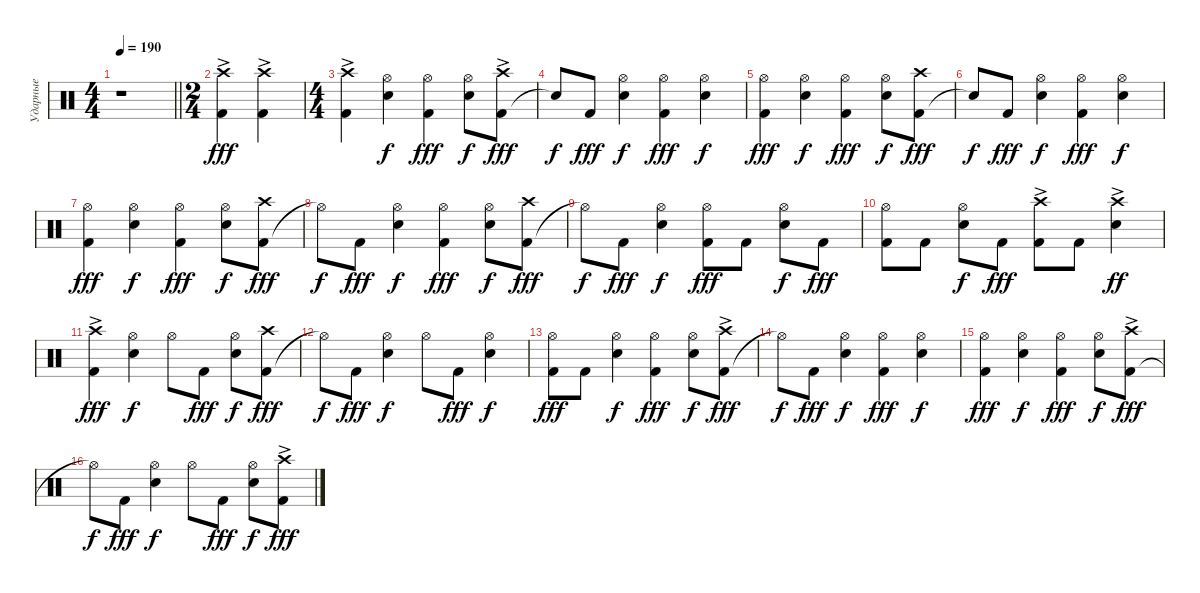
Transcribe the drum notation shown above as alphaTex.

\track ("Ударные" "Ударные") {instrument percussion}
\staff {score}
\articulation defaults
\ts (4 4)
\tempo 190
\clef neutral
\barLineRight lightlight
\ks c
r.1{dy fff} |
\ts (2 4)
("Kick (hit) 2" "Crash high (hit)"{ac}).4 ("Kick (hit) 2" "Crash high (hit)"{ac}).4 |
\ts (4 4)
("Kick (hit) 2" "Crash high (hit)"{ac}).4 ("Snare (hit) 2" "Hi-Hat (open)").4{dy f} ("Kick (hit) 2" "Hi-Hat (open)").4{dy fff} ("Snare (hit) 2" "Hi-Hat (open)").8{dy f} ("Kick (hit) 2" "Crash high (hit)"{ac}).8{dy fff} |
"Snare (hit)"{t}.8{dy f} "Kick (hit) 2".8{dy fff} ("Snare (hit) 2" "Hi-Hat (open)").4{dy f} ("Kick (hit) 2" "Hi-Hat (open)").4{dy fff} ("Snare (hit) 2" "Hi-Hat (open)").4{dy f} |
("Kick (hit) 2" "Hi-Hat (open)").4{dy fff} ("Snare (hit) 2" "Hi-Hat (open)").4{dy f} ("Kick (hit) 2" "Hi-Hat (open)").4{dy fff} ("Snare (hit) 2" "Hi-Hat (open)").8{dy f} ("Kick (hit) 2" "Crash high (hit)").8{dy fff} |
"Snare (hit)"{t}.8{dy f} "Kick (hit) 2".8{dy fff} ("Snare (hit) 2" "Hi-Hat (open)").4{dy f} ("Kick (hit) 2" "Hi-Hat (open)").4{dy fff} ("Snare (hit) 2" "Hi-Hat (open)").4{dy f} |
("Kick (hit) 2" "Hi-Hat (open)").4{dy fff} ("Snare (hit) 2" "Hi-Hat (open)").4{dy f} ("Kick (hit) 2" "Hi-Hat (open)").4{dy fff} ("Snare (hit) 2" "Hi-Hat (open)").8{dy f} ("Kick (hit) 2" "Crash high (hit)").8{dy fff} |
"Hi-Hat (open)"{t}.8{dy f} "Kick (hit) 2".8{dy fff} ("Snare (hit) 2" "Hi-Hat (open)").4{dy f} ("Kick (hit) 2" "Hi-Hat (open)").4{dy fff} ("Snare (hit) 2" "Hi-Hat (open)").8{dy f} ("Kick (hit) 2" "Crash high (hit)").8{dy fff} |
"Hi-Hat (open)"{t}.8{dy f} "Kick (hit) 2".8{dy fff} ("Snare (hit) 2" "Hi-Hat (open)").4{dy f} ("Kick (hit) 2" "Hi-Hat (open)").8{dy fff} "Kick (hit) 2".8 ("Snare (hit) 2" "Hi-Hat (open)").8{dy f} "Kick (hit) 2".8{dy fff} |
("Kick (hit) 2" "Hi-Hat (open)").8 "Kick (hit) 2".8 ("Snare (hit) 2" "Hi-Hat (open)").8{dy f} "Kick (hit) 2".8{dy fff} ("Kick (hit) 2" "Crash high (hit)"{ac}).8 "Kick (hit) 2".8 ("Snare (hit) 2" "Crash high (hit)"{ac}).4{dy ff} |
("Kick (hit) 2" "Crash high (hit)"{ac}).4{dy fff} ("Snare (hit) 2" "Hi-Hat (open)").4{dy f} "Hi-Hat (open)".8 "Kick (hit) 2".8{dy fff} ("Snare (hit) 2" "Hi-Hat (open)").8{dy f} ("Kick (hit) 2" "Crash high (hit)").8{dy fff} |
"Hi-Hat (open)"{t}.8{dy f} "Kick (hit) 2".8{dy fff} ("Snare (hit) 2" "Hi-Hat (open)").4{dy f} "Hi-Hat (open)".8 "Kick (hit) 2".8{dy fff} ("Snare (hit) 2" "Hi-Hat (open)").4{dy f} |
("Kick (hit) 2" "Hi-Hat (open)").8{dy fff} "Kick (hit) 2".8 ("Snare (hit) 2" "Hi-Hat (open)").4{dy f} ("Kick (hit) 2" "Hi-Hat (open)").4{dy fff} ("Snare (hit) 2" "Hi-Hat (open)").8{dy f} ("Kick (hit) 2" "Crash high (hit)"{ac}).8{dy fff} |
"Hi-Hat (open)"{t}.8{dy f} "Kick (hit) 2".8{dy fff} ("Snare (hit) 2" "Hi-Hat (open)").4{dy f} ("Kick (hit) 2" "Hi-Hat (open)").4{dy fff} ("Snare (hit) 2" "Hi-Hat (open)").4{dy f} |
("Kick (hit) 2" "Hi-Hat (open)").4{dy fff} ("Snare (hit) 2" "Hi-Hat (open)").4{dy f} ("Kick (hit) 2" "Hi-Hat (open)").4{dy fff} ("Snare (hit) 2" "Hi-Hat (open)").8{dy f} ("Kick (hit) 2" "Crash high (hit)"{ac}).8{dy fff} |
"Hi-Hat (open)"{t}.8{dy f} "Kick (hit) 2".8{dy fff} ("Snare (hit) 2" "Hi-Hat (open)").4{dy f} "Hi-Hat (open)".8 "Kick (hit) 2".8{dy fff} ("Snare (hit) 2" "Hi-Hat (open)").8{dy f} ("Kick (hit) 2" "Crash high (hit)"{ac}).8{dy fff}
